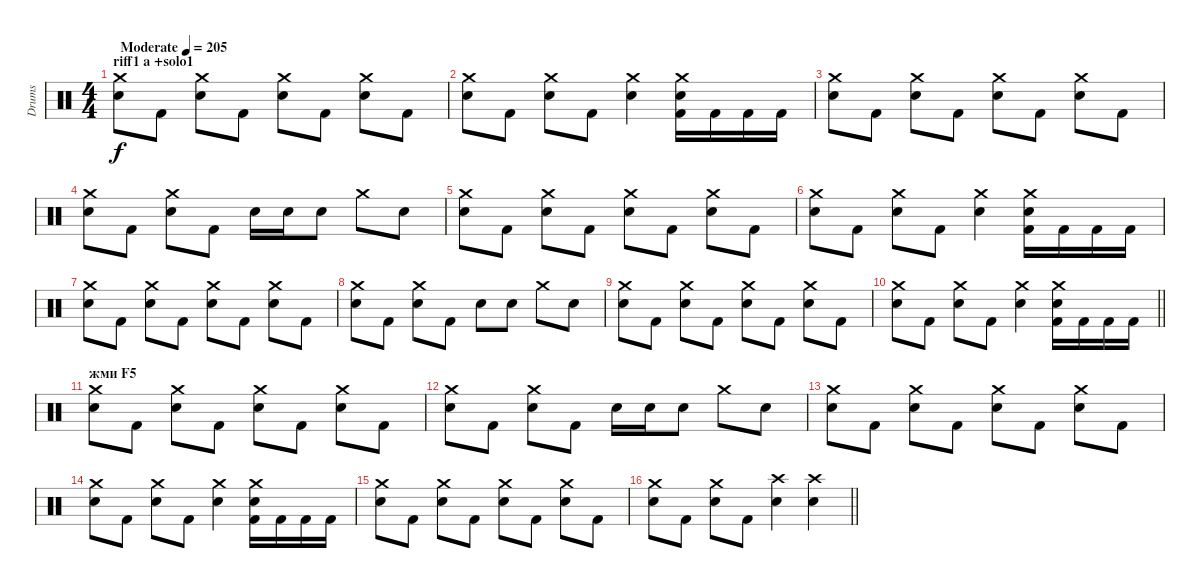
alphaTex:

\track ("Drums" "Drums") {instrument percussion}
\staff {score}
\articulation defaults
\ts (4 4)
\section ("" "riff1 a +solo1")
\tempo (205 "Moderate")
\clef neutral
\ks c
("Crash medium (hit)" "Snare (hit) 2").8{dy f} "Kick (hit) 2".8 ("Crash medium (hit)" "Snare (hit) 2").8 "Kick (hit) 2".8 ("Crash medium (hit)" "Snare (hit) 2").8 "Kick (hit) 2".8 ("Crash medium (hit)" "Snare (hit) 2").8 "Kick (hit) 2".8 |
("Crash medium (hit)" "Snare (hit) 2").8 "Kick (hit) 2".8 ("Crash medium (hit)" "Snare (hit) 2").8 "Kick (hit) 2".8 ("Crash medium (hit)" "Snare (hit) 2").4 ("Crash medium (hit)" "Snare (hit) 2" "Kick (hit) 2").16 "Kick (hit) 2".16 "Kick (hit) 2".16 "Kick (hit) 2".16 |
("Crash medium (hit)" "Snare (hit) 2").8 "Kick (hit) 2".8 ("Crash medium (hit)" "Snare (hit) 2").8 "Kick (hit) 2".8 ("Crash medium (hit)" "Snare (hit) 2").8 "Kick (hit) 2".8 ("Crash medium (hit)" "Snare (hit) 2").8 "Kick (hit) 2".8 |
("Crash medium (hit)" "Snare (hit) 2").8 "Kick (hit) 2".8 ("Crash medium (hit)" "Snare (hit) 2").8 "Kick (hit) 2".8 "Snare (hit) 2".16 "Snare (hit) 2".16 "Snare (hit) 2".8 "Crash medium (hit)".8 "Snare (hit) 2".8 |
("Crash medium (hit)" "Snare (hit) 2").8 "Kick (hit) 2".8 ("Crash medium (hit)" "Snare (hit) 2").8 "Kick (hit) 2".8 ("Crash medium (hit)" "Snare (hit) 2").8 "Kick (hit) 2".8 ("Crash medium (hit)" "Snare (hit) 2").8 "Kick (hit) 2".8 |
("Crash medium (hit)" "Snare (hit) 2").8 "Kick (hit) 2".8 ("Crash medium (hit)" "Snare (hit) 2").8 "Kick (hit) 2".8 ("Crash medium (hit)" "Snare (hit) 2").4 ("Crash medium (hit)" "Snare (hit) 2" "Kick (hit) 2").16 "Kick (hit) 2".16 "Kick (hit) 2".16 "Kick (hit) 2".16 |
("Crash medium (hit)" "Snare (hit) 2").8 "Kick (hit) 2".8 ("Crash medium (hit)" "Snare (hit) 2").8 "Kick (hit) 2".8 ("Crash medium (hit)" "Snare (hit) 2").8 "Kick (hit) 2".8 ("Crash medium (hit)" "Snare (hit) 2").8 "Kick (hit) 2".8 |
("Crash medium (hit)" "Snare (hit) 2").8 "Kick (hit) 2".8 ("Crash medium (hit)" "Snare (hit) 2").8 "Kick (hit) 2".8 "Snare (hit) 2".8 "Snare (hit) 2".8 "Crash medium (hit)".8 "Snare (hit) 2".8 |
("Crash medium (hit)" "Snare (hit) 2").8 "Kick (hit) 2".8 ("Crash medium (hit)" "Snare (hit) 2").8 "Kick (hit) 2".8 ("Crash medium (hit)" "Snare (hit) 2").8 "Kick (hit) 2".8 ("Crash medium (hit)" "Snare (hit) 2").8 "Kick (hit) 2".8 |
\barLineRight lightlight
("Crash medium (hit)" "Snare (hit) 2").8 "Kick (hit) 2".8 ("Crash medium (hit)" "Snare (hit) 2").8 "Kick (hit) 2".8 ("Crash medium (hit)" "Snare (hit) 2").4 ("Crash medium (hit)" "Snare (hit) 2" "Kick (hit) 2").16 "Kick (hit) 2".16 "Kick (hit) 2".16 "Kick (hit) 2".16 |
\section ("" "жми F5")
("Crash medium (hit)" "Snare (hit) 2").8 "Kick (hit) 2".8 ("Crash medium (hit)" "Snare (hit) 2").8 "Kick (hit) 2".8 ("Crash medium (hit)" "Snare (hit) 2").8 "Kick (hit) 2".8 ("Crash medium (hit)" "Snare (hit) 2").8 "Kick (hit) 2".8 |
("Crash medium (hit)" "Snare (hit) 2").8 "Kick (hit) 2".8 ("Crash medium (hit)" "Snare (hit) 2").8 "Kick (hit) 2".8 "Snare (hit) 2".16 "Snare (hit) 2".16 "Snare (hit) 2".8 "Crash medium (hit)".8 "Snare (hit) 2".8 |
("Crash medium (hit)" "Snare (hit) 2").8 "Kick (hit) 2".8 ("Crash medium (hit)" "Snare (hit) 2").8 "Kick (hit) 2".8 ("Crash medium (hit)" "Snare (hit) 2").8 "Kick (hit) 2".8 ("Crash medium (hit)" "Snare (hit) 2").8 "Kick (hit) 2".8 |
("Crash medium (hit)" "Snare (hit) 2").8 "Kick (hit) 2".8 ("Crash medium (hit)" "Snare (hit) 2").8 "Kick (hit) 2".8 ("Crash medium (hit)" "Snare (hit) 2").4 ("Crash medium (hit)" "Snare (hit) 2" "Kick (hit) 2").16 "Kick (hit) 2".16 "Kick (hit) 2".16 "Kick (hit) 2".16 |
("Crash medium (hit)" "Snare (hit) 2").8 "Kick (hit) 2".8 ("Crash medium (hit)" "Snare (hit) 2").8 "Kick (hit) 2".8 ("Crash medium (hit)" "Snare (hit) 2").8 "Kick (hit) 2".8 ("Crash medium (hit)" "Snare (hit) 2").8 "Kick (hit) 2".8 |
\barLineRight lightlight
("Crash medium (hit)" "Snare (hit) 2").8 "Kick (hit) 2".8 ("Crash medium (hit)" "Snare (hit) 2").8 "Kick (hit) 2".8 ("Crash high (hit)" "Snare (hit) 2").4 ("Crash high (hit)" "Snare (hit) 2").4
